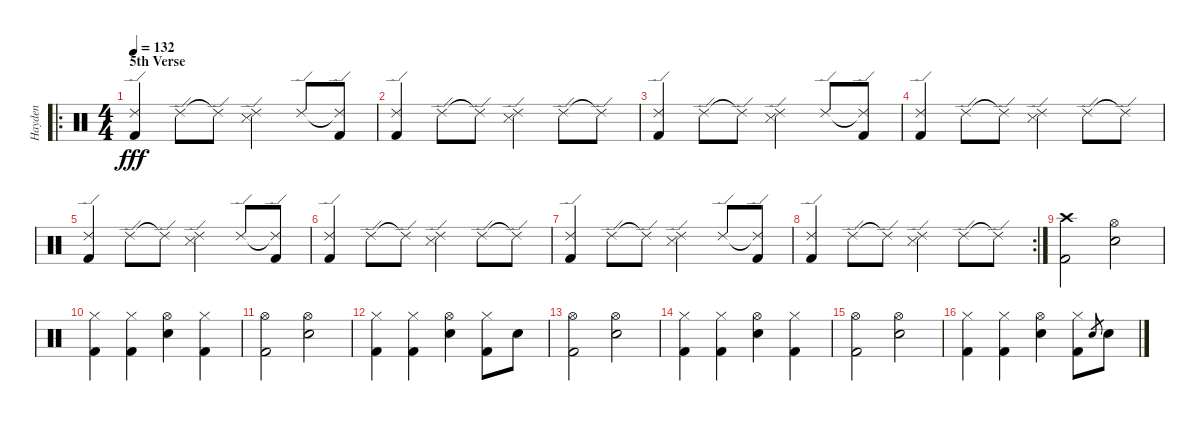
\track ("Hayden" "Hayden") {instrument percussion}
\staff {score}
\articulation defaults
\ro
\ts (4 4)
\section ("" "5th Verse")
\tempo 132
\clef neutral
\ks c
("Ride (edge) 2" "Kick (hit) 2").4{dy fff} "Ride (edge) 2".8 "Ride (edge) 2"{t}.8 ("Ride (edge) 2" "Snare (side stick) 3").4 "Ride (edge) 2".8 ("Ride (edge) 2"{t} "Kick (hit) 2").8 |
("Ride (edge) 2" "Kick (hit) 2").4 "Ride (edge) 2".8 "Ride (edge) 2"{t}.8 ("Ride (edge) 2" "Snare (side stick) 3").4 "Ride (edge) 2".8 "Ride (edge) 2"{t}.8 |
("Ride (edge) 2" "Kick (hit) 2").4 "Ride (edge) 2".8 "Ride (edge) 2"{t}.8 ("Ride (edge) 2" "Snare (side stick) 3").4 "Ride (edge) 2".8 ("Ride (edge) 2"{t} "Kick (hit) 2").8 |
("Ride (edge) 2" "Kick (hit) 2").4 "Ride (edge) 2".8 "Ride (edge) 2"{t}.8 ("Ride (edge) 2" "Snare (side stick) 3").4 "Ride (edge) 2".8 "Ride (edge) 2"{t}.8 |
("Ride (edge) 2" "Kick (hit) 2").4 "Ride (edge) 2".8 "Ride (edge) 2"{t}.8 ("Ride (edge) 2" "Snare (side stick) 3").4 "Ride (edge) 2".8 ("Ride (edge) 2"{t} "Kick (hit) 2").8 |
("Ride (edge) 2" "Kick (hit) 2").4 "Ride (edge) 2".8 "Ride (edge) 2"{t}.8 ("Ride (edge) 2" "Snare (side stick) 3").4 "Ride (edge) 2".8 "Ride (edge) 2"{t}.8 |
("Ride (edge) 2" "Kick (hit) 2").4 "Ride (edge) 2".8 "Ride (edge) 2"{t}.8 ("Ride (edge) 2" "Snare (side stick) 3").4 "Ride (edge) 2".8 ("Ride (edge) 2"{t} "Kick (hit) 2").8 |
\rc 2
("Ride (edge) 2" "Kick (hit) 2").4 "Ride (edge) 2".8 "Ride (edge) 2"{t}.8 ("Ride (edge) 2" "Snare (side stick) 3").4 "Ride (edge) 2".8 "Ride (edge) 2"{t}.8 |
("Crash high (hit)" "Kick (hit) 2").2 ("Hi-Hat (open)" "Electric Snare (hit)").2 |
("Kick (hit) 2" "Hi-Hat (closed)").4 ("Kick (hit) 2" "Hi-Hat (closed)").4 ("Hi-Hat (open)" "Electric Snare (hit)").4 ("Hi-Hat (closed)" "Kick (hit) 2").4 |
("Hi-Hat (open)" "Kick (hit) 2").2 ("Hi-Hat (open)" "Electric Snare (hit)").2 |
("Kick (hit) 2" "Hi-Hat (closed)").4 ("Kick (hit) 2" "Hi-Hat (closed)").4 ("Hi-Hat (open)" "Electric Snare (hit)").4 ("Hi-Hat (closed)" "Kick (hit) 2").8 "Electric Snare (hit)".8 |
("Hi-Hat (open)" "Kick (hit) 2").2 ("Hi-Hat (open)" "Electric Snare (hit)").2 |
("Kick (hit) 2" "Hi-Hat (closed)").4 ("Kick (hit) 2" "Hi-Hat (closed)").4 ("Hi-Hat (open)" "Electric Snare (hit)").4 ("Hi-Hat (closed)" "Kick (hit) 2").4 |
("Hi-Hat (open)" "Kick (hit) 2").2 ("Hi-Hat (open)" "Electric Snare (hit)").2 |
("Kick (hit) 2" "Hi-Hat (closed)").4 ("Kick (hit) 2" "Hi-Hat (closed)").4 ("Hi-Hat (open)" "Electric Snare (hit)").4 ("Hi-Hat (closed)" "Kick (hit) 2").8 "Electric Snare (hit)".8{gr} "Electric Snare (hit)".8
